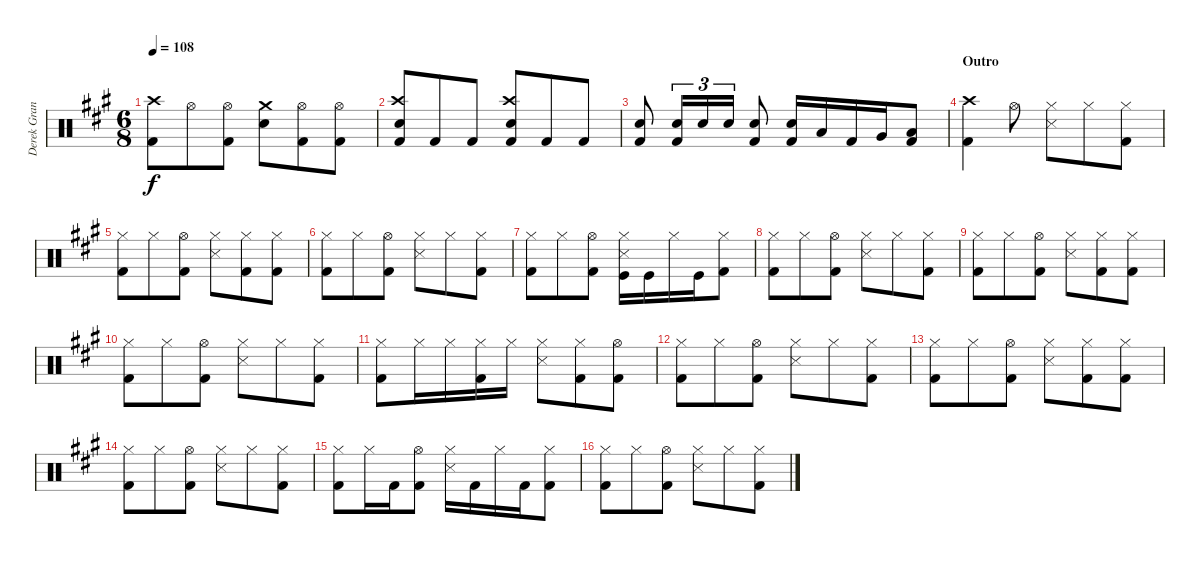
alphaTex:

\track ("Derek Grant - Drums" "Derek Gran") {instrument percussion}
\staff {score}
\articulation defaults
\ts (6 8)
\tempo 108
\clef neutral
\ks a
("Kick (hit) 2" "Crash high (hit)").8{dy f} "Hi-Hat (open)".8 ("Hi-Hat (open)" "Kick (hit) 2").8 ("Snare (hit) 2" "Crash medium (hit)").8 ("Hi-Hat (open)" "Kick (hit) 2").8 ("Hi-Hat (open)" "Kick (hit) 2").8 |
("Kick (hit) 2" "Snare (hit) 2" "Crash high (hit)").8 "Kick (hit) 2".8 "Kick (hit) 2".8 ("Kick (hit) 2" "Snare (hit) 2" "Crash high (hit)").8 "Kick (hit) 2".8 "Kick (hit) 2".8 |
("Snare (hit) 2" "Kick (hit) 2").8 ("Snare (hit) 2" "Kick (hit) 2").16{tu (3 2)} "Snare (hit) 2".16{tu (3 2)} "Snare (hit) 2".16{tu (3 2)} ("Snare (hit) 2" "Kick (hit) 2").8 ("Snare (hit) 2" "Kick (hit) 2").16 "Low Tom (hit)".16 "Kick (hit) 2".16 "Very Low Tom (hit)".16 ("Low Floor Tom (hit)" "Kick (hit) 2").8 |
\section ("" "Outro")
("Kick (hit) 2" "Crash high (hit)").4 "Hi-Hat (open)".8 ("Hi-Hat (closed)" "Snare (side stick) 3").8 "Hi-Hat (closed)".8 ("Hi-Hat (closed)" "Kick (hit) 2").8 |
("Kick (hit) 2" "Hi-Hat (closed)").8 "Hi-Hat (closed)".8 ("Hi-Hat (open)" "Kick (hit) 2").8 ("Hi-Hat (closed)" "Snare (side stick) 3").8 ("Hi-Hat (closed)" "Kick (hit) 2").8 ("Hi-Hat (closed)" "Kick (hit) 2").8 |
("Kick (hit) 2" "Hi-Hat (closed)").8 "Hi-Hat (closed)".8 ("Hi-Hat (open)" "Kick (hit) 2").8 ("Hi-Hat (closed)" "Snare (side stick) 3").8 "Hi-Hat (closed)".8 ("Hi-Hat (closed)" "Kick (hit) 2").8 |
("Kick (hit) 2" "Hi-Hat (closed)").8 "Hi-Hat (closed)".8 ("Hi-Hat (open)" "Kick (hit) 2").8 ("Hi-Hat (closed)" "Snare (side stick) 3" "Kick (hit)").16 "Kick (hit)".16 "Hi-Hat (closed)".16 "Kick (hit)".16 ("Hi-Hat (closed)" "Kick (hit) 2").8 |
("Kick (hit) 2" "Hi-Hat (closed)").8 "Hi-Hat (closed)".8 ("Hi-Hat (open)" "Kick (hit) 2").8 ("Hi-Hat (closed)" "Snare (side stick) 3").8 "Hi-Hat (closed)".8 ("Hi-Hat (closed)" "Kick (hit) 2").8 |
("Kick (hit) 2" "Hi-Hat (closed)").8 "Hi-Hat (closed)".8 ("Hi-Hat (open)" "Kick (hit) 2").8 ("Hi-Hat (closed)" "Snare (side stick) 3").8 ("Hi-Hat (closed)" "Kick (hit) 2").8 ("Hi-Hat (closed)" "Kick (hit) 2").8 |
("Kick (hit) 2" "Hi-Hat (closed)").8 "Hi-Hat (closed)".8 ("Hi-Hat (open)" "Kick (hit) 2").8 ("Hi-Hat (closed)" "Snare (side stick) 3").8 "Hi-Hat (closed)".8 ("Hi-Hat (closed)" "Kick (hit) 2").8 |
("Kick (hit) 2" "Hi-Hat (closed)").8 "Hi-Hat (closed)".16 "Hi-Hat (closed)".16 ("Kick (hit) 2" "Hi-Hat (closed)").16 "Hi-Hat (closed)".16 ("Hi-Hat (closed)" "Snare (side stick) 3").8 ("Hi-Hat (closed)" "Kick (hit) 2").8 ("Hi-Hat (open)" "Kick (hit) 2").8 |
("Kick (hit) 2" "Hi-Hat (closed)").8 "Hi-Hat (closed)".8 ("Hi-Hat (open)" "Kick (hit) 2").8 ("Hi-Hat (closed)" "Snare (side stick) 3").8 "Hi-Hat (closed)".8 ("Hi-Hat (closed)" "Kick (hit) 2").8 |
("Kick (hit) 2" "Hi-Hat (closed)").8 "Hi-Hat (closed)".8 ("Hi-Hat (open)" "Kick (hit) 2").8 ("Hi-Hat (closed)" "Snare (side stick) 3").8 ("Hi-Hat (closed)" "Kick (hit) 2").8 ("Hi-Hat (closed)" "Kick (hit) 2").8 |
("Kick (hit) 2" "Hi-Hat (closed)").8 "Hi-Hat (closed)".8 ("Hi-Hat (open)" "Kick (hit) 2").8 ("Hi-Hat (closed)" "Snare (side stick) 3").8 "Hi-Hat (closed)".8 ("Hi-Hat (closed)" "Kick (hit) 2").8 |
("Kick (hit) 2" "Hi-Hat (closed)").8 "Hi-Hat (closed)".16 "Kick (hit) 2".16 ("Hi-Hat (open)" "Kick (hit) 2").8 ("Hi-Hat (closed)" "Snare (side stick) 3").16 "Kick (hit) 2".16 "Hi-Hat (closed)".16 "Kick (hit) 2".16 ("Kick (hit) 2" "Hi-Hat (closed)").8 |
("Kick (hit) 2" "Hi-Hat (closed)").8 "Hi-Hat (closed)".8 ("Hi-Hat (open)" "Kick (hit) 2").8 ("Hi-Hat (closed)" "Snare (side stick) 3").8 "Hi-Hat (closed)".8 ("Hi-Hat (closed)" "Kick (hit) 2").8
